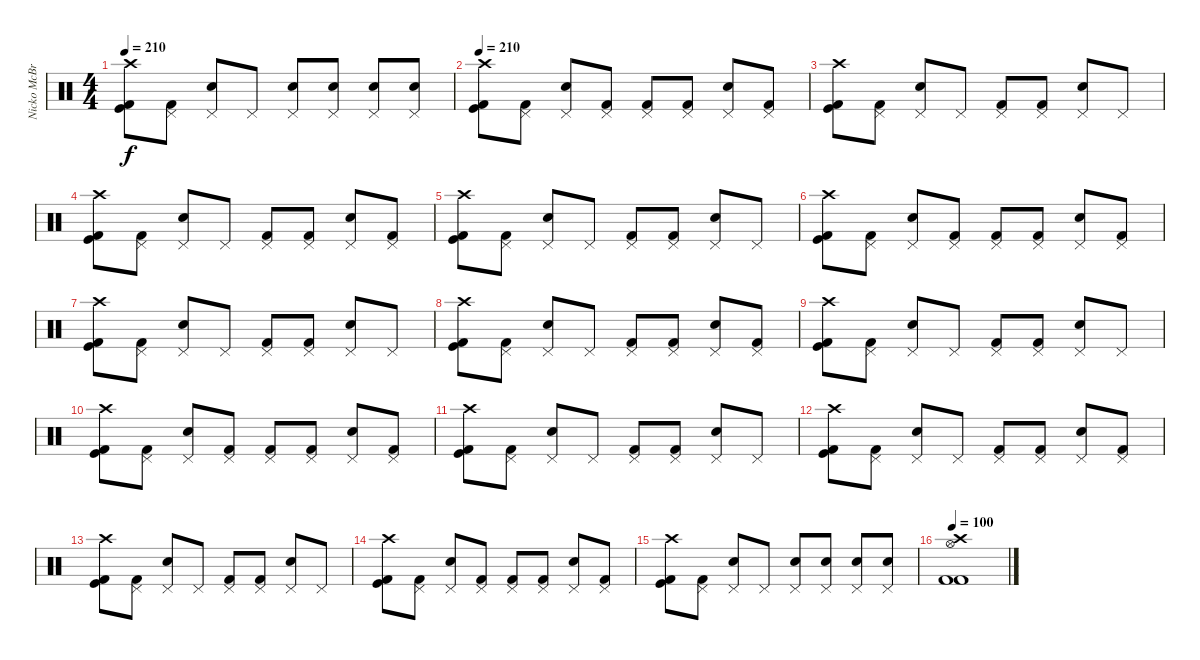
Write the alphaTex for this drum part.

\track ("Nicko McBrain" "Nicko McBr") {instrument percussion}
\staff {score}
\articulation defaults
\ts (4 4)
\tempo 210
\clef neutral
\ks c
("Crash high (hit)" "Kick (hit)" "Kick (hit) 2").8{dy f} ("Pedal Hi-Hat (hit)" "Kick (hit) 2").8 ("Pedal Hi-Hat (hit)" "Snare (hit) 2").8 "Pedal Hi-Hat (hit)".8 ("Pedal Hi-Hat (hit)" "Snare (hit) 2").8 ("Pedal Hi-Hat (hit)" "Snare (hit) 2").8 ("Pedal Hi-Hat (hit)" "Snare (hit) 2").8 ("Pedal Hi-Hat (hit)" "Snare (hit) 2").8 |
\tempo 210
("Crash high (hit)" "Kick (hit)" "Kick (hit) 2").8 ("Pedal Hi-Hat (hit)" "Kick (hit) 2").8 ("Pedal Hi-Hat (hit)" "Snare (hit) 2").8 ("Pedal Hi-Hat (hit)" "Kick (hit) 2").8 ("Pedal Hi-Hat (hit)" "Kick (hit) 2").8 ("Pedal Hi-Hat (hit)" "Kick (hit) 2").8 ("Pedal Hi-Hat (hit)" "Snare (hit) 2").8 ("Pedal Hi-Hat (hit)" "Kick (hit) 2").8 |
("Crash high (hit)" "Kick (hit)" "Kick (hit) 2").8 ("Pedal Hi-Hat (hit)" "Kick (hit) 2").8 ("Pedal Hi-Hat (hit)" "Snare (hit) 2").8 "Pedal Hi-Hat (hit)".8 ("Pedal Hi-Hat (hit)" "Kick (hit) 2").8 ("Pedal Hi-Hat (hit)" "Kick (hit) 2").8 ("Pedal Hi-Hat (hit)" "Snare (hit) 2").8 "Pedal Hi-Hat (hit)".8 |
("Crash high (hit)" "Kick (hit)" "Kick (hit) 2").8 ("Pedal Hi-Hat (hit)" "Kick (hit) 2").8 ("Pedal Hi-Hat (hit)" "Snare (hit) 2").8 "Pedal Hi-Hat (hit)".8 ("Pedal Hi-Hat (hit)" "Kick (hit) 2").8 ("Pedal Hi-Hat (hit)" "Kick (hit) 2").8 ("Pedal Hi-Hat (hit)" "Snare (hit) 2").8 ("Pedal Hi-Hat (hit)" "Kick (hit) 2").8 |
("Crash high (hit)" "Kick (hit)" "Kick (hit) 2").8 ("Pedal Hi-Hat (hit)" "Kick (hit) 2").8 ("Pedal Hi-Hat (hit)" "Snare (hit) 2").8 "Pedal Hi-Hat (hit)".8 ("Pedal Hi-Hat (hit)" "Kick (hit) 2").8 ("Pedal Hi-Hat (hit)" "Kick (hit) 2").8 ("Pedal Hi-Hat (hit)" "Snare (hit) 2").8 "Pedal Hi-Hat (hit)".8 |
("Crash high (hit)" "Kick (hit)" "Kick (hit) 2").8 ("Pedal Hi-Hat (hit)" "Kick (hit) 2").8 ("Pedal Hi-Hat (hit)" "Snare (hit) 2").8 ("Pedal Hi-Hat (hit)" "Kick (hit) 2").8 ("Pedal Hi-Hat (hit)" "Kick (hit) 2").8 ("Pedal Hi-Hat (hit)" "Kick (hit) 2").8 ("Pedal Hi-Hat (hit)" "Snare (hit) 2").8 ("Pedal Hi-Hat (hit)" "Kick (hit) 2").8 |
("Crash high (hit)" "Kick (hit)" "Kick (hit) 2").8 ("Pedal Hi-Hat (hit)" "Kick (hit) 2").8 ("Pedal Hi-Hat (hit)" "Snare (hit) 2").8 "Pedal Hi-Hat (hit)".8 ("Pedal Hi-Hat (hit)" "Kick (hit) 2").8 ("Pedal Hi-Hat (hit)" "Kick (hit) 2").8 ("Pedal Hi-Hat (hit)" "Snare (hit) 2").8 "Pedal Hi-Hat (hit)".8 |
("Crash high (hit)" "Kick (hit)" "Kick (hit) 2").8 ("Pedal Hi-Hat (hit)" "Kick (hit) 2").8 ("Pedal Hi-Hat (hit)" "Snare (hit) 2").8 "Pedal Hi-Hat (hit)".8 ("Pedal Hi-Hat (hit)" "Kick (hit) 2").8 ("Pedal Hi-Hat (hit)" "Kick (hit) 2").8 ("Pedal Hi-Hat (hit)" "Snare (hit) 2").8 ("Pedal Hi-Hat (hit)" "Kick (hit) 2").8 |
("Crash high (hit)" "Kick (hit)" "Kick (hit) 2").8 ("Pedal Hi-Hat (hit)" "Kick (hit) 2").8 ("Pedal Hi-Hat (hit)" "Snare (hit) 2").8 "Pedal Hi-Hat (hit)".8 ("Pedal Hi-Hat (hit)" "Kick (hit) 2").8 ("Pedal Hi-Hat (hit)" "Kick (hit) 2").8 ("Pedal Hi-Hat (hit)" "Snare (hit) 2").8 "Pedal Hi-Hat (hit)".8 |
("Crash high (hit)" "Kick (hit)" "Kick (hit) 2").8 ("Pedal Hi-Hat (hit)" "Kick (hit) 2").8 ("Pedal Hi-Hat (hit)" "Snare (hit) 2").8 ("Pedal Hi-Hat (hit)" "Kick (hit) 2").8 ("Pedal Hi-Hat (hit)" "Kick (hit) 2").8 ("Pedal Hi-Hat (hit)" "Kick (hit) 2").8 ("Pedal Hi-Hat (hit)" "Snare (hit) 2").8 ("Pedal Hi-Hat (hit)" "Kick (hit) 2").8 |
("Crash high (hit)" "Kick (hit)" "Kick (hit) 2").8 ("Pedal Hi-Hat (hit)" "Kick (hit) 2").8 ("Pedal Hi-Hat (hit)" "Snare (hit) 2").8 "Pedal Hi-Hat (hit)".8 ("Pedal Hi-Hat (hit)" "Kick (hit) 2").8 ("Pedal Hi-Hat (hit)" "Kick (hit) 2").8 ("Pedal Hi-Hat (hit)" "Snare (hit) 2").8 "Pedal Hi-Hat (hit)".8 |
("Crash high (hit)" "Kick (hit)" "Kick (hit) 2").8 ("Pedal Hi-Hat (hit)" "Kick (hit) 2").8 ("Pedal Hi-Hat (hit)" "Snare (hit) 2").8 "Pedal Hi-Hat (hit)".8 ("Pedal Hi-Hat (hit)" "Kick (hit) 2").8 ("Pedal Hi-Hat (hit)" "Kick (hit) 2").8 ("Pedal Hi-Hat (hit)" "Snare (hit) 2").8 ("Pedal Hi-Hat (hit)" "Kick (hit) 2").8 |
("Crash high (hit)" "Kick (hit)" "Kick (hit) 2").8 ("Pedal Hi-Hat (hit)" "Kick (hit) 2").8 ("Pedal Hi-Hat (hit)" "Snare (hit) 2").8 "Pedal Hi-Hat (hit)".8 ("Pedal Hi-Hat (hit)" "Kick (hit) 2").8 ("Pedal Hi-Hat (hit)" "Kick (hit) 2").8 ("Pedal Hi-Hat (hit)" "Snare (hit) 2").8 "Pedal Hi-Hat (hit)".8 |
("Crash high (hit)" "Kick (hit)" "Kick (hit) 2").8 ("Pedal Hi-Hat (hit)" "Kick (hit) 2").8 ("Pedal Hi-Hat (hit)" "Snare (hit) 2").8 ("Pedal Hi-Hat (hit)" "Kick (hit) 2").8 ("Pedal Hi-Hat (hit)" "Kick (hit) 2").8 ("Pedal Hi-Hat (hit)" "Kick (hit) 2").8 ("Pedal Hi-Hat (hit)" "Snare (hit) 2").8 ("Pedal Hi-Hat (hit)" "Kick (hit) 2").8 |
("Crash high (hit)" "Kick (hit)" "Kick (hit) 2").8 ("Pedal Hi-Hat (hit)" "Kick (hit) 2").8 ("Pedal Hi-Hat (hit)" "Snare (hit) 2").8 "Pedal Hi-Hat (hit)".8 ("Pedal Hi-Hat (hit)" "Snare (hit) 2").8 ("Pedal Hi-Hat (hit)" "Snare (hit) 2").8 ("Pedal Hi-Hat (hit)" "Snare (hit) 2").8 ("Pedal Hi-Hat (hit)" "Snare (hit) 2").8 |
\tempo 100
("Crash high (hit)" "Hi-Hat (open)" "Kick (hit) 2" "Kick (hit) 2").1
